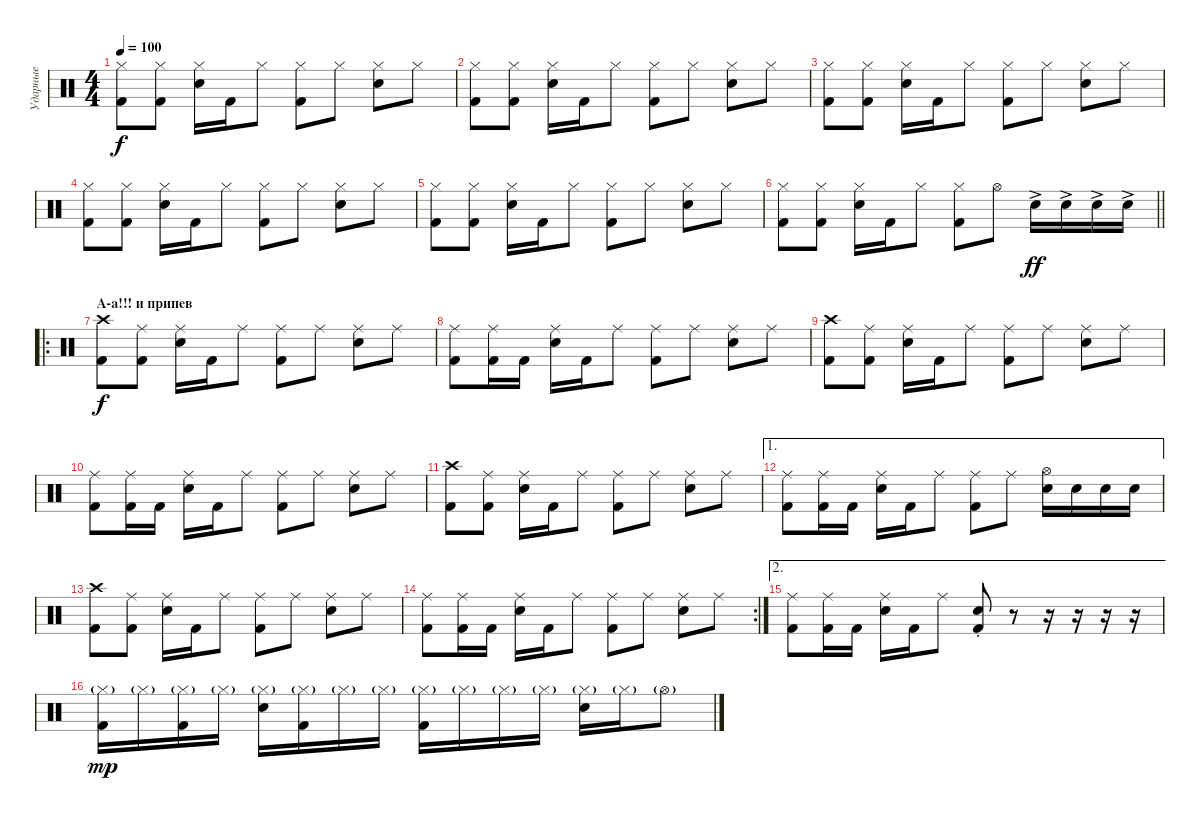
\track ("Ударные" "Ударные") {instrument percussion}
\staff {score}
\articulation defaults
\ts (4 4)
\tempo 100
\clef neutral
\ks c
("Hi-Hat (closed)" "Kick (hit) 2").8{dy f} ("Hi-Hat (closed)" "Kick (hit) 2").8 ("Hi-Hat (closed)" "Snare (hit) 2").16 "Kick (hit) 2".16 "Hi-Hat (closed)".8 ("Hi-Hat (closed)" "Kick (hit) 2").8 "Hi-Hat (closed)".8 ("Hi-Hat (closed)" "Snare (hit) 2").8 "Hi-Hat (closed)".8 |
("Hi-Hat (closed)" "Kick (hit) 2").8 ("Hi-Hat (closed)" "Kick (hit) 2").8 ("Hi-Hat (closed)" "Snare (hit) 2").16 "Kick (hit) 2".16 "Hi-Hat (closed)".8 ("Hi-Hat (closed)" "Kick (hit) 2").8 "Hi-Hat (closed)".8 ("Hi-Hat (closed)" "Snare (hit) 2").8 "Hi-Hat (closed)".8 |
("Hi-Hat (closed)" "Kick (hit) 2").8 ("Hi-Hat (closed)" "Kick (hit) 2").8 ("Hi-Hat (closed)" "Snare (hit) 2").16 "Kick (hit) 2".16 "Hi-Hat (closed)".8 ("Hi-Hat (closed)" "Kick (hit) 2").8 "Hi-Hat (closed)".8 ("Hi-Hat (closed)" "Snare (hit) 2").8 "Hi-Hat (closed)".8 |
("Hi-Hat (closed)" "Kick (hit) 2").8 ("Hi-Hat (closed)" "Kick (hit) 2").8 ("Hi-Hat (closed)" "Snare (hit) 2").16 "Kick (hit) 2".16 "Hi-Hat (closed)".8 ("Hi-Hat (closed)" "Kick (hit) 2").8 "Hi-Hat (closed)".8 ("Hi-Hat (closed)" "Snare (hit) 2").8 "Hi-Hat (closed)".8 |
("Hi-Hat (closed)" "Kick (hit) 2").8 ("Hi-Hat (closed)" "Kick (hit) 2").8 ("Hi-Hat (closed)" "Snare (hit) 2").16 "Kick (hit) 2".16 "Hi-Hat (closed)".8 ("Hi-Hat (closed)" "Kick (hit) 2").8 "Hi-Hat (closed)".8 ("Hi-Hat (closed)" "Snare (hit) 2").8 "Hi-Hat (closed)".8 |
\barLineRight lightlight
("Hi-Hat (closed)" "Kick (hit) 2").8 ("Hi-Hat (closed)" "Kick (hit) 2").8 ("Hi-Hat (closed)" "Snare (hit) 2").16 "Kick (hit) 2".16 "Hi-Hat (closed)".8 ("Hi-Hat (closed)" "Kick (hit) 2").8 "Hi-Hat (open)".8 "Snare (hit) 2"{ac}.16{dy ff} "Snare (hit) 2"{ac}.16 "Snare (hit) 2"{ac}.16 "Snare (hit) 2"{ac}.16 |
\ro
\section ("" "А-а!!! и припев")
("Crash high (hit)" "Kick (hit) 2").8{dy f} ("Ride (middle)" "Kick (hit) 2").8 ("Ride (middle)" "Snare (hit) 2").16 "Kick (hit) 2".16 "Ride (middle)".8 ("Ride (middle)" "Kick (hit) 2").8 "Ride (middle)".8 ("Ride (middle)" "Snare (hit) 2").8 "Ride (middle)".8 |
("Ride (middle)" "Kick (hit) 2").8 ("Ride (middle)" "Kick (hit) 2").16 "Kick (hit) 2".16 ("Ride (middle)" "Snare (hit) 2").16 "Kick (hit) 2".16 "Ride (middle)".8 ("Ride (middle)" "Kick (hit) 2").8 "Ride (middle)".8 ("Ride (middle)" "Snare (hit) 2").8 "Ride (middle)".8 |
("Crash high (hit)" "Kick (hit) 2").8 ("Ride (middle)" "Kick (hit) 2").8 ("Ride (middle)" "Snare (hit) 2").16 "Kick (hit) 2".16 "Ride (middle)".8 ("Ride (middle)" "Kick (hit) 2").8 "Ride (middle)".8 ("Ride (middle)" "Snare (hit) 2").8 "Ride (middle)".8 |
("Ride (middle)" "Kick (hit) 2").8 ("Ride (middle)" "Kick (hit) 2").16 "Kick (hit) 2".16 ("Ride (middle)" "Snare (hit) 2").16 "Kick (hit) 2".16 "Ride (middle)".8 ("Ride (middle)" "Kick (hit) 2").8 "Ride (middle)".8 ("Ride (middle)" "Snare (hit) 2").8 "Ride (middle)".8 |
("Crash high (hit)" "Kick (hit) 2").8 ("Ride (middle)" "Kick (hit) 2").8 ("Ride (middle)" "Snare (hit) 2").16 "Kick (hit) 2".16 "Ride (middle)".8 ("Ride (middle)" "Kick (hit) 2").8 "Ride (middle)".8 ("Ride (middle)" "Snare (hit) 2").8 "Ride (middle)".8 |
\ae 1
("Ride (middle)" "Kick (hit) 2").8 ("Ride (middle)" "Kick (hit) 2").16 "Kick (hit) 2".16 ("Ride (middle)" "Snare (hit) 2").16 "Kick (hit) 2".16 "Ride (middle)".8 ("Ride (middle)" "Kick (hit) 2").8 "Ride (middle)".8 ("Hi-Hat (open)" "Snare (hit) 2").16 "Snare (hit) 2".16 "Snare (hit) 2".16 "Snare (hit) 2".16 |
("Crash high (hit)" "Kick (hit) 2").8 ("Ride (middle)" "Kick (hit) 2").8 ("Ride (middle)" "Snare (hit) 2").16 "Kick (hit) 2".16 "Ride (middle)".8 ("Ride (middle)" "Kick (hit) 2").8 "Ride (middle)".8 ("Ride (middle)" "Snare (hit) 2").8 "Ride (middle)".8 |
\rc 2
("Ride (middle)" "Kick (hit) 2").8 ("Ride (middle)" "Kick (hit) 2").16 "Kick (hit) 2".16 ("Ride (middle)" "Snare (hit) 2").16 "Kick (hit) 2".16 "Ride (middle)".8 ("Ride (middle)" "Kick (hit) 2").8 "Ride (middle)".8 ("Ride (middle)" "Snare (hit) 2").8 "Ride (middle)".8 |
\ae 2
("Ride (middle)" "Kick (hit) 2").8 ("Ride (middle)" "Kick (hit) 2").16 "Kick (hit) 2".16 ("Ride (middle)" "Snare (hit) 2").16 "Kick (hit) 2".16 "Ride (middle)".8 ("Snare (hit) 2"{st} "Kick (hit) 2").8 r.8 r.16 r.16 r.16 r.16 |
("Hi-Hat (closed)"{g} "Kick (hit) 2").16{dy mp} "Hi-Hat (closed)"{g}.16 ("Hi-Hat (closed)"{g} "Kick (hit) 2").16 "Hi-Hat (closed)"{g}.16 ("Hi-Hat (closed)"{g} "Snare (hit) 2").16 ("Hi-Hat (closed)"{g} "Kick (hit) 2").16 "Hi-Hat (closed)"{g}.16 "Hi-Hat (closed)"{g}.16 ("Hi-Hat (closed)"{g} "Kick (hit) 2").16 "Hi-Hat (closed)"{g}.16 "Hi-Hat (closed)"{g}.16 "Hi-Hat (closed)"{g}.16 ("Hi-Hat (closed)"{g} "Snare (hit) 2").16 "Hi-Hat (closed)"{g}.16 "Hi-Hat (open)"{g}.8
